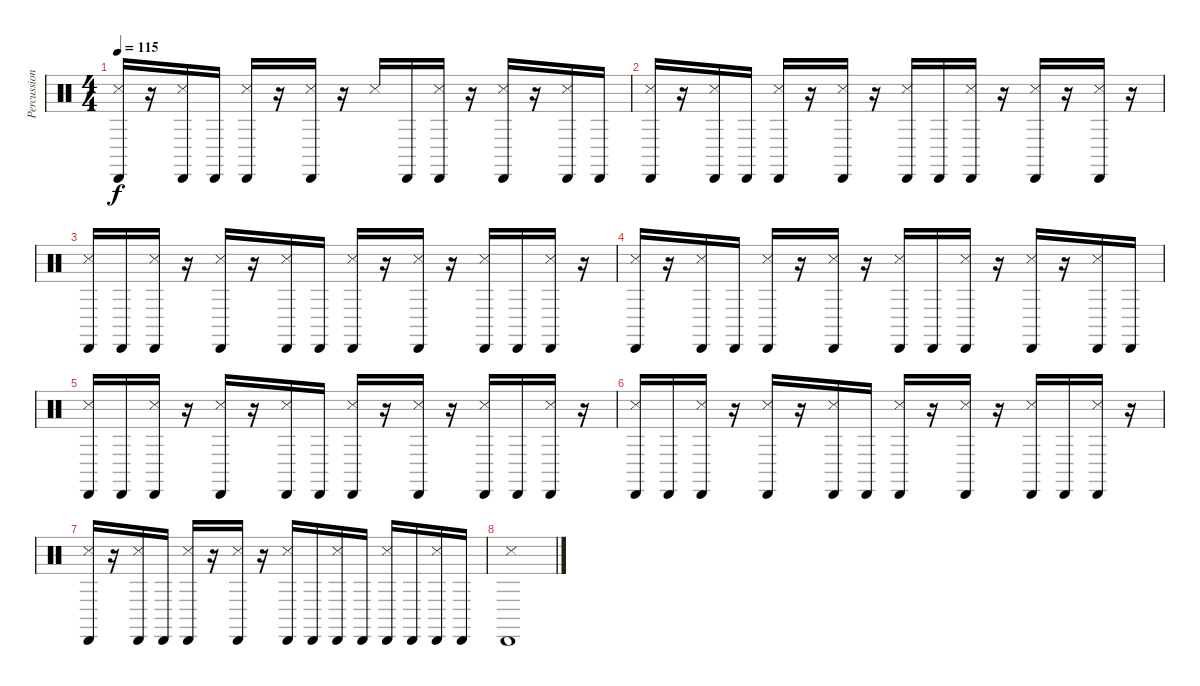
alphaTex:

\track ("Percussion" "Percussion") {instrument percussion}
\staff {score}
\articulation defaults
\ts (4 4)
\tempo 115
\clef neutral
\ks c
("Cabasa (hit)" "Snare (side stick) 3").16{dy f} r.16 ("Cabasa (hit)" "Snare (side stick) 3").16 "Cabasa (hit)".16 ("Cabasa (hit)" "Snare (side stick) 3").16 r.16 ("Cabasa (hit)" "Snare (side stick) 3").16 r.16 "Snare (side stick) 3".16 "Cabasa (hit)".16 ("Cabasa (hit)" "Snare (side stick) 3").16 r.16 ("Cabasa (hit)" "Snare (side stick) 3").16 r.16 ("Cabasa (hit)" "Snare (side stick) 3").16 "Cabasa (hit)".16 |
("Cabasa (hit)" "Snare (side stick) 3").16 r.16 ("Cabasa (hit)" "Snare (side stick) 3").16 "Cabasa (hit)".16 ("Cabasa (hit)" "Snare (side stick) 3").16 r.16 ("Cabasa (hit)" "Snare (side stick) 3").16 r.16 ("Cabasa (hit)" "Snare (side stick) 3").16 "Cabasa (hit)".16 ("Cabasa (hit)" "Snare (side stick) 3").16 r.16 ("Cabasa (hit)" "Snare (side stick) 3").16 r.16 ("Cabasa (hit)" "Snare (side stick) 3").16 r.16 |
("Cabasa (hit)" "Snare (side stick) 3").16 "Cabasa (hit)".16 ("Cabasa (hit)" "Snare (side stick) 3").16 r.16 ("Cabasa (hit)" "Snare (side stick) 3").16 r.16 ("Cabasa (hit)" "Snare (side stick) 3").16 "Cabasa (hit)".16 ("Cabasa (hit)" "Snare (side stick) 3").16 r.16 ("Cabasa (hit)" "Snare (side stick) 3").16 r.16 ("Cabasa (hit)" "Snare (side stick) 3").16 "Cabasa (hit)".16 ("Cabasa (hit)" "Snare (side stick) 3").16 r.16 |
("Cabasa (hit)" "Snare (side stick) 3").16 r.16 ("Cabasa (hit)" "Snare (side stick) 3").16 "Cabasa (hit)".16 ("Cabasa (hit)" "Snare (side stick) 3").16 r.16 ("Cabasa (hit)" "Snare (side stick) 3").16 r.16 ("Cabasa (hit)" "Snare (side stick) 3").16 "Cabasa (hit)".16 ("Cabasa (hit)" "Snare (side stick) 3").16 r.16 ("Cabasa (hit)" "Snare (side stick) 3").16 r.16 ("Cabasa (hit)" "Snare (side stick) 3").16 "Cabasa (hit)".16 |
("Cabasa (hit)" "Snare (side stick) 3").16 "Cabasa (hit)".16 ("Cabasa (hit)" "Snare (side stick) 3").16 r.16 ("Cabasa (hit)" "Snare (side stick) 3").16 r.16 ("Cabasa (hit)" "Snare (side stick) 3").16 "Cabasa (hit)".16 ("Cabasa (hit)" "Snare (side stick) 3").16 r.16 ("Cabasa (hit)" "Snare (side stick) 3").16 r.16 ("Cabasa (hit)" "Snare (side stick) 3").16 "Cabasa (hit)".16 ("Cabasa (hit)" "Snare (side stick) 3").16 r.16 |
("Cabasa (hit)" "Snare (side stick) 3").16 "Cabasa (hit)".16 ("Cabasa (hit)" "Snare (side stick) 3").16 r.16 ("Cabasa (hit)" "Snare (side stick) 3").16 r.16 ("Cabasa (hit)" "Snare (side stick) 3").16 "Cabasa (hit)".16 ("Cabasa (hit)" "Snare (side stick) 3").16 r.16 ("Cabasa (hit)" "Snare (side stick) 3").16 r.16 ("Cabasa (hit)" "Snare (side stick) 3").16 "Cabasa (hit)".16 ("Cabasa (hit)" "Snare (side stick) 3").16 r.16 |
("Cabasa (hit)" "Snare (side stick) 3").16 r.16 ("Cabasa (hit)" "Snare (side stick) 3").16 "Cabasa (hit)".16 ("Cabasa (hit)" "Snare (side stick) 3").16 r.16 ("Cabasa (hit)" "Snare (side stick) 3").16 r.16 ("Cabasa (hit)" "Snare (side stick) 3").16 "Cabasa (hit)".16 ("Cabasa (hit)" "Snare (side stick) 3").16 "Cabasa (hit)".16 ("Cabasa (hit)" "Snare (side stick) 3").16 "Cabasa (hit)".16 ("Cabasa (hit)" "Snare (side stick) 3").16 "Cabasa (hit)".16 |
("Cabasa (hit)" "Snare (side stick) 3").1
